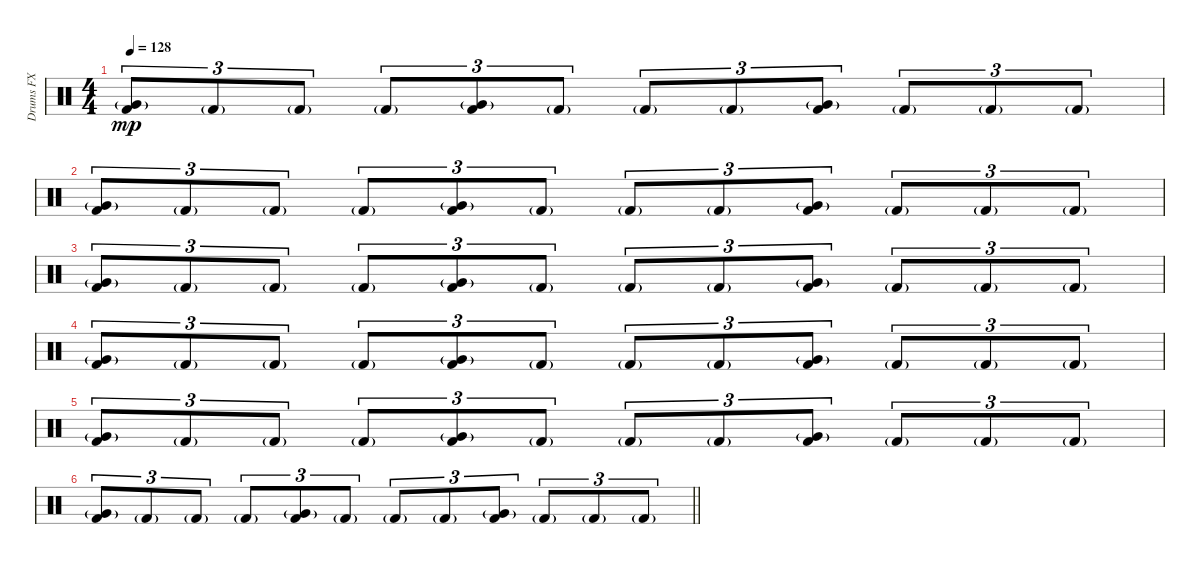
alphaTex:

\track ("Drums FX" "Drums FX") {instrument percussion}
\staff {score}
\articulation defaults
\ts (4 4)
\tempo 128
\clef neutral
\ks c
("Very Low Tom (hit)"{g} "Kick (hit) 2").8{tu (3 2) dy mp} "Kick (hit) 2"{g}.8{tu (3 2)} "Kick (hit) 2"{g}.8{tu (3 2)} "Kick (hit) 2"{g}.8{tu (3 2)} ("Very Low Tom (hit)"{g} "Kick (hit) 2").8{tu (3 2)} "Kick (hit) 2"{g}.8{tu (3 2)} "Kick (hit) 2"{g}.8{tu (3 2)} "Kick (hit) 2"{g}.8{tu (3 2)} ("Very Low Tom (hit)"{g} "Kick (hit) 2").8{tu (3 2)} "Kick (hit) 2"{g}.8{tu (3 2)} "Kick (hit) 2"{g}.8{tu (3 2)} "Kick (hit) 2"{g}.8{tu (3 2)} |
("Very Low Tom (hit)"{g} "Kick (hit) 2").8{tu (3 2)} "Kick (hit) 2"{g}.8{tu (3 2)} "Kick (hit) 2"{g}.8{tu (3 2)} "Kick (hit) 2"{g}.8{tu (3 2)} ("Very Low Tom (hit)"{g} "Kick (hit) 2").8{tu (3 2)} "Kick (hit) 2"{g}.8{tu (3 2)} "Kick (hit) 2"{g}.8{tu (3 2)} "Kick (hit) 2"{g}.8{tu (3 2)} ("Very Low Tom (hit)"{g} "Kick (hit) 2").8{tu (3 2)} "Kick (hit) 2"{g}.8{tu (3 2)} "Kick (hit) 2"{g}.8{tu (3 2)} "Kick (hit) 2"{g}.8{tu (3 2)} |
("Very Low Tom (hit)"{g} "Kick (hit) 2").8{tu (3 2)} "Kick (hit) 2"{g}.8{tu (3 2)} "Kick (hit) 2"{g}.8{tu (3 2)} "Kick (hit) 2"{g}.8{tu (3 2)} ("Very Low Tom (hit)"{g} "Kick (hit) 2").8{tu (3 2)} "Kick (hit) 2"{g}.8{tu (3 2)} "Kick (hit) 2"{g}.8{tu (3 2)} "Kick (hit) 2"{g}.8{tu (3 2)} ("Very Low Tom (hit)"{g} "Kick (hit) 2").8{tu (3 2)} "Kick (hit) 2"{g}.8{tu (3 2)} "Kick (hit) 2"{g}.8{tu (3 2)} "Kick (hit) 2"{g}.8{tu (3 2)} |
("Very Low Tom (hit)"{g} "Kick (hit) 2").8{tu (3 2)} "Kick (hit) 2"{g}.8{tu (3 2)} "Kick (hit) 2"{g}.8{tu (3 2)} "Kick (hit) 2"{g}.8{tu (3 2)} ("Very Low Tom (hit)"{g} "Kick (hit) 2").8{tu (3 2)} "Kick (hit) 2"{g}.8{tu (3 2)} "Kick (hit) 2"{g}.8{tu (3 2)} "Kick (hit) 2"{g}.8{tu (3 2)} ("Very Low Tom (hit)"{g} "Kick (hit) 2").8{tu (3 2)} "Kick (hit) 2"{g}.8{tu (3 2)} "Kick (hit) 2"{g}.8{tu (3 2)} "Kick (hit) 2"{g}.8{tu (3 2)} |
("Very Low Tom (hit)"{g} "Kick (hit) 2").8{tu (3 2)} "Kick (hit) 2"{g}.8{tu (3 2)} "Kick (hit) 2"{g}.8{tu (3 2)} "Kick (hit) 2"{g}.8{tu (3 2)} ("Very Low Tom (hit)"{g} "Kick (hit) 2").8{tu (3 2)} "Kick (hit) 2"{g}.8{tu (3 2)} "Kick (hit) 2"{g}.8{tu (3 2)} "Kick (hit) 2"{g}.8{tu (3 2)} ("Very Low Tom (hit)"{g} "Kick (hit) 2").8{tu (3 2)} "Kick (hit) 2"{g}.8{tu (3 2)} "Kick (hit) 2"{g}.8{tu (3 2)} "Kick (hit) 2"{g}.8{tu (3 2)} |
\barLineRight lightlight
("Very Low Tom (hit)"{g} "Kick (hit) 2").8{tu (3 2)} "Kick (hit) 2"{g}.8{tu (3 2)} "Kick (hit) 2"{g}.8{tu (3 2)} "Kick (hit) 2"{g}.8{tu (3 2)} ("Very Low Tom (hit)"{g} "Kick (hit) 2").8{tu (3 2)} "Kick (hit) 2"{g}.8{tu (3 2)} "Kick (hit) 2"{g}.8{tu (3 2)} "Kick (hit) 2"{g}.8{tu (3 2)} ("Very Low Tom (hit)"{g} "Kick (hit) 2").8{tu (3 2)} "Kick (hit) 2"{g}.8{tu (3 2)} "Kick (hit) 2"{g}.8{tu (3 2)} "Kick (hit) 2"{g}.8{tu (3 2)}
